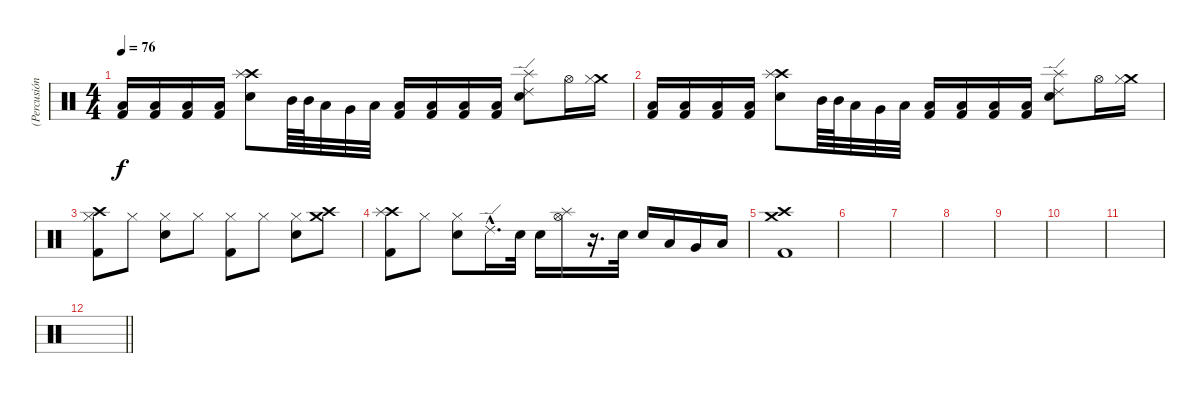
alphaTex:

\track ("(Percusión)" "(Percusión") {instrument percussion}
\staff {score}
\articulation defaults
\ts (4 4)
\tempo 76
\clef neutral
\ks c
("Low Floor Tom (hit)" "Kick (hit) 2").16{dy f} ("Low Floor Tom (hit)" "Kick (hit) 2").16 ("Low Floor Tom (hit)" "Kick (hit) 2").16 ("Low Floor Tom (hit)" "Kick (hit) 2").16 ("Crash high (hit)" "Splash (hit)" "Snare (hit) 2").8 "Mid Tom (hit)".64 "Mid Tom (hit)".64 "Low Tom (hit)".32 "Very Low Tom (hit)".32 "Low Floor Tom (hit)".32 ("Low Floor Tom (hit)" "Kick (hit) 2").16 ("Low Floor Tom (hit)" "Kick (hit) 2").16 ("Low Floor Tom (hit)" "Kick (hit) 2").16 ("Low Floor Tom (hit)" "Kick (hit) 2").16 ("Ride (edge) 2" "Splash (hit)" "Snare (hit) 2").8 "Hi-Hat (open)".16 ("Crash medium (hit)" "Hi-Hat (closed)").16 |
("Low Floor Tom (hit)" "Kick (hit) 2").16 ("Low Floor Tom (hit)" "Kick (hit) 2").16 ("Low Floor Tom (hit)" "Kick (hit) 2").16 ("Low Floor Tom (hit)" "Kick (hit) 2").16 ("Crash high (hit)" "Splash (hit)" "Snare (hit) 2").8 "Mid Tom (hit)".64 "Mid Tom (hit)".64 "Low Tom (hit)".32 "Very Low Tom (hit)".32 "Low Floor Tom (hit)".32 ("Low Floor Tom (hit)" "Kick (hit) 2").16 ("Low Floor Tom (hit)" "Kick (hit) 2").16 ("Low Floor Tom (hit)" "Kick (hit) 2").16 ("Low Floor Tom (hit)" "Kick (hit) 2").16 ("Ride (edge) 2" "Splash (hit)" "Snare (hit) 2").8 "Hi-Hat (open)".16 ("Crash medium (hit)" "Hi-Hat (closed)").16 |
("Hi-Hat (closed)" "Crash high (hit)" "Kick (hit) 2").8 "Hi-Hat (closed)".8 ("Hi-Hat (closed)" "Snare (hit) 2").8 "Hi-Hat (closed)".8 ("Hi-Hat (closed)" "Kick (hit) 2").8 "Hi-Hat (closed)".8 ("Hi-Hat (closed)" "Snare (hit) 2").8 ("Crash high (hit)" "Crash medium (hit)").8 |
("Crash high (hit)" "Splash (hit)" "Kick (hit) 2").8 "Hi-Hat (closed)".8 ("Hi-Hat (closed)" "Snare (hit) 2").8 "Ride (edge) 2"{hac}.16{d} "Snare (hit) 2".32 "Snare (hit) 2".16 ("Hi-Hat (open)" "Splash (hit)").16 r.16{d} "Snare (hit) 2".32 "Snare (hit) 2".16 "Low Tom (hit)".16 "Very Low Tom (hit)".16 "Low Floor Tom (hit)".16 |
("Crash medium (hit)" "Crash high (hit)" "Kick (hit) 2").1 |
|
|
|
|
|
|
\barLineRight lightlight
